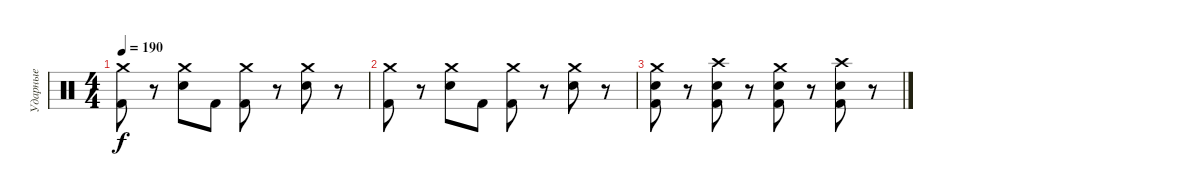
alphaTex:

\track ("Ударные" "Ударные") {instrument percussion}
\staff {score}
\articulation defaults
\ts (4 4)
\tempo 190
\clef neutral
\ks c
("Crash medium (hit)" "Kick (hit) 2").8{dy f} r.8 ("Crash medium (hit)" "Snare (hit) 2").8 "Kick (hit) 2".8 ("Crash medium (hit)" "Kick (hit) 2").8 r.8 ("Crash medium (hit)" "Snare (hit) 2").8 r.8 |
("Crash medium (hit)" "Kick (hit) 2").8 r.8 ("Crash medium (hit)" "Snare (hit) 2").8 "Kick (hit) 2".8 ("Crash medium (hit)" "Kick (hit) 2").8 r.8 ("Crash medium (hit)" "Snare (hit) 2").8 r.8 |
("Crash medium (hit)" "Snare (hit) 2" "Kick (hit) 2").8 r.8 ("Crash high (hit)" "Snare (hit) 2" "Kick (hit) 2").8 r.8 ("Crash medium (hit)" "Snare (hit) 2" "Kick (hit) 2").8 r.8 ("Crash high (hit)" "Snare (hit) 2" "Kick (hit) 2").8 r.8
